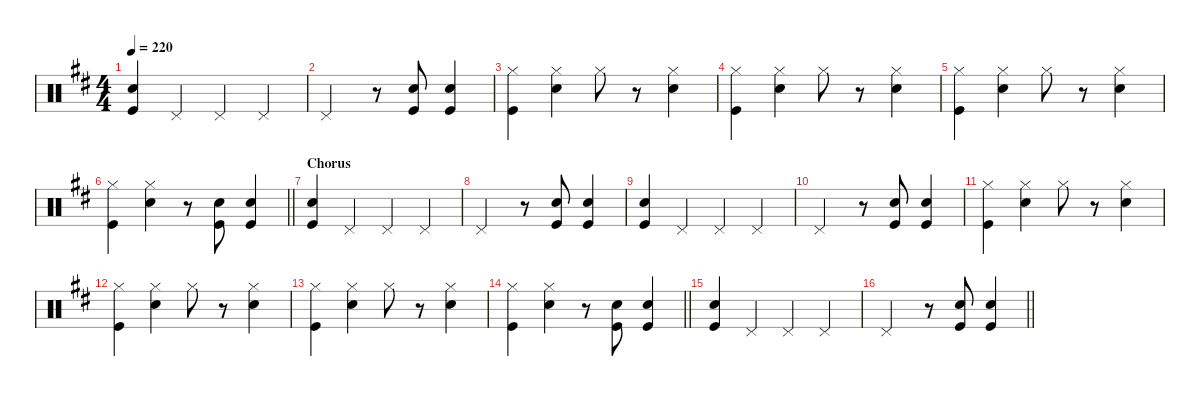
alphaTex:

\defaultSystemsLayout 4
\hideDynamics
\bracketExtendMode nobrackets
\singleTrackTrackNamePolicy hidden
\multiTrackTrackNamePolicy hidden
\otherSystemsTrackNameOrientation horizontal
\track ("Charlie Watts" "drm.") {defaultSystemsLayout 8 instrument percussion}
\staff {score}
\articulation defaults
\ts (4 4)
\tempo 220
\clef neutral
\ks bminor
("Snare (hit) 2"{acc forcenatural} "Kick (hit)"{acc forcenatural}).4{dy ff beam Up} "Pedal Hi-Hat (hit)"{acc forcenatural}.4{beam Up} "Pedal Hi-Hat (hit)"{acc forcenatural}.4{beam Up} "Pedal Hi-Hat (hit)"{acc forcenatural}.4{beam Up} |
"Pedal Hi-Hat (hit)"{acc forcenatural}.2{beam Up} r.8{beam Up} ("Snare (hit) 2"{acc forcenatural} "Kick (hit)"{acc forcenatural}).8{beam Up} ("Snare (hit) 2"{acc forcenatural} "Kick (hit)"{acc forcenatural}).4{beam Up} |
("Hi-Hat (closed)"{acc forcenatural} "Kick (hit)"{acc forcenatural}).4{beam Down} ("Hi-Hat (closed)"{acc forcenatural} "Snare (hit) 2"{acc forcenatural}).4{beam Down} "Hi-Hat (closed)"{acc forcenatural}.8{beam Down} r.8{beam Down} ("Hi-Hat (closed)"{acc forcenatural} "Snare (hit) 2"{acc forcenatural}).4{beam Down} |
("Hi-Hat (closed)"{acc forcenatural} "Kick (hit)"{acc forcenatural}).4{beam Down} ("Hi-Hat (closed)"{acc forcenatural} "Snare (hit) 2"{acc forcenatural}).4{beam Down} "Hi-Hat (closed)"{acc forcenatural}.8{beam Down} r.8{beam Down} ("Hi-Hat (closed)"{acc forcenatural} "Snare (hit) 2"{acc forcenatural}).4{beam Down} |
("Hi-Hat (closed)"{acc forcenatural} "Kick (hit)"{acc forcenatural}).4{beam Down} ("Hi-Hat (closed)"{acc forcenatural} "Snare (hit) 2"{acc forcenatural}).4{beam Down} "Hi-Hat (closed)"{acc forcenatural}.8{beam Down} r.8{beam Down} ("Hi-Hat (closed)"{acc forcenatural} "Snare (hit) 2"{acc forcenatural}).4{beam Down} |
\barLineRight lightlight
("Hi-Hat (closed)"{acc forcenatural} "Kick (hit)"{acc forcenatural}).4{beam Down} ("Hi-Hat (closed)"{acc forcenatural} "Snare (hit) 2"{acc forcenatural}).4{beam Down} r.8{beam Down} ("Snare (hit) 2"{acc forcenatural} "Kick (hit)"{acc forcenatural}).8{beam Up} ("Snare (hit) 2"{acc forcenatural} "Kick (hit)"{acc forcenatural}).4{beam Up} |
\section ("" "Chorus")
("Snare (hit) 2"{acc forcenatural} "Kick (hit)"{acc forcenatural}).4{beam Up} "Pedal Hi-Hat (hit)"{acc forcenatural}.4{beam Up} "Pedal Hi-Hat (hit)"{acc forcenatural}.4{beam Up} "Pedal Hi-Hat (hit)"{acc forcenatural}.4{beam Up} |
"Pedal Hi-Hat (hit)"{acc forcenatural}.2{beam Up} r.8{beam Up} ("Snare (hit) 2"{acc forcenatural} "Kick (hit)"{acc forcenatural}).8{beam Up} ("Snare (hit) 2"{acc forcenatural} "Kick (hit)"{acc forcenatural}).4{beam Up} |
("Snare (hit) 2"{acc forcenatural} "Kick (hit)"{acc forcenatural}).4{beam Up} "Pedal Hi-Hat (hit)"{acc forcenatural}.4{beam Up} "Pedal Hi-Hat (hit)"{acc forcenatural}.4{beam Up} "Pedal Hi-Hat (hit)"{acc forcenatural}.4{beam Up} |
"Pedal Hi-Hat (hit)"{acc forcenatural}.2{beam Up} r.8{beam Up} ("Snare (hit) 2"{acc forcenatural} "Kick (hit)"{acc forcenatural}).8{beam Up} ("Snare (hit) 2"{acc forcenatural} "Kick (hit)"{acc forcenatural}).4{beam Up} |
("Hi-Hat (closed)"{acc forcenatural} "Kick (hit)"{acc forcenatural}).4{beam Down} ("Hi-Hat (closed)"{acc forcenatural} "Snare (hit) 2"{acc forcenatural}).4{beam Down} "Hi-Hat (closed)"{acc forcenatural}.8{beam Down} r.8{beam Down} ("Hi-Hat (closed)"{acc forcenatural} "Snare (hit) 2"{acc forcenatural}).4{beam Down} |
("Hi-Hat (closed)"{acc forcenatural} "Kick (hit)"{acc forcenatural}).4{beam Down} ("Hi-Hat (closed)"{acc forcenatural} "Snare (hit) 2"{acc forcenatural}).4{beam Down} "Hi-Hat (closed)"{acc forcenatural}.8{beam Down} r.8{beam Down} ("Hi-Hat (closed)"{acc forcenatural} "Snare (hit) 2"{acc forcenatural}).4{beam Down} |
("Hi-Hat (closed)"{acc forcenatural} "Kick (hit)"{acc forcenatural}).4{beam Down} ("Hi-Hat (closed)"{acc forcenatural} "Snare (hit) 2"{acc forcenatural}).4{beam Down} "Hi-Hat (closed)"{acc forcenatural}.8{beam Down} r.8{beam Down} ("Hi-Hat (closed)"{acc forcenatural} "Snare (hit) 2"{acc forcenatural}).4{beam Down} |
\barLineRight lightlight
("Hi-Hat (closed)"{acc forcenatural} "Kick (hit)"{acc forcenatural}).4{beam Down} ("Hi-Hat (closed)"{acc forcenatural} "Snare (hit) 2"{acc forcenatural}).4{beam Down} r.8{beam Down} ("Snare (hit) 2"{acc forcenatural} "Kick (hit)"{acc forcenatural}).8{beam Up} ("Snare (hit) 2"{acc forcenatural} "Kick (hit)"{acc forcenatural}).4{beam Up} |
("Snare (hit) 2"{acc forcenatural} "Kick (hit)"{acc forcenatural}).4{beam Up} "Pedal Hi-Hat (hit)"{acc forcenatural}.4{beam Up} "Pedal Hi-Hat (hit)"{acc forcenatural}.4{beam Up} "Pedal Hi-Hat (hit)"{acc forcenatural}.4{beam Up} |
\barLineRight lightlight "Pedal Hi-Hat (hit)"{acc forcenatural}.2{beam Up}
r.8{beam Up} ("Snare (hit) 2"{acc forcenatural} "Kick (hit)"{acc forcenatural}).8{beam Up} ("Snare (hit) 2"{acc forcenatural} "Kick (hit)"{acc forcenatural}).4{beam Up}
